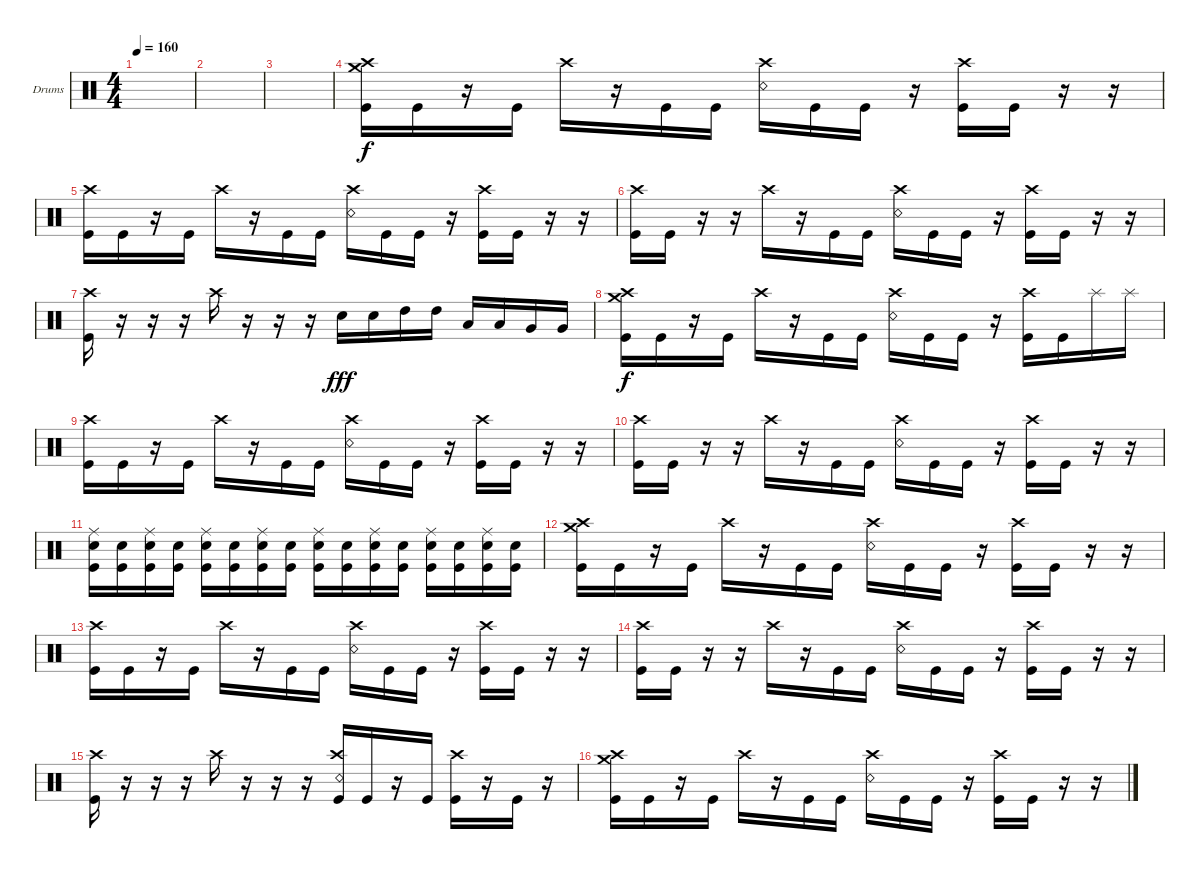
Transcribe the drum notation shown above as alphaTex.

\defaultSystemsLayout 4
\bracketExtendMode groupsimilarinstruments
\firstSystemTrackNameOrientation horizontal
\otherSystemsTrackNameOrientation horizontal
\track ("Drumkit" "Drums") {instrument percussion}
\staff {score}
\articulation defaults
\ts (4 4)
\tempo 160
\clef neutral
\ks c
|
|
|
("Kick (hit)" "Crash high (hit)" "Crash medium (hit)").16 "Kick (hit)".16 r.16 "Kick (hit)".16 "Crash high (hit)".16 r.16 "Kick (hit)".16 "Kick (hit)".16 ("Snare (rim shot)" "Crash high (hit)").16 "Kick (hit)".16 "Kick (hit)".16 r.16 ("Kick (hit)" "Crash high (hit)").16 "Kick (hit)".16 r.16 r.16 |
("Kick (hit)" "Crash high (hit)").16 "Kick (hit)".16 r.16 "Kick (hit)".16 "Crash high (hit)".16 r.16 "Kick (hit)".16 "Kick (hit)".16 ("Snare (rim shot)" "Crash high (hit)").16 "Kick (hit)".16 "Kick (hit)".16 r.16 ("Kick (hit)" "Crash high (hit)").16 "Kick (hit)".16 r.16 r.16 |
("Kick (hit)" "Crash high (hit)").16 "Kick (hit)".16 r.16 r.16 "Crash high (hit)".16 r.16 "Kick (hit)".16 "Kick (hit)".16 ("Snare (rim shot)" "Crash high (hit)").16 "Kick (hit)".16 "Kick (hit)".16 r.16 ("Kick (hit)" "Crash high (hit)").16 "Kick (hit)".16 r.16 r.16 |
("Kick (hit)" "Crash high (hit)").16 r.16 r.16 r.16 "Crash high (hit)".16 r.16 r.16 r.16 "Snare (hit) 2".16{dy fff} "Snare (hit) 2".16 "High Tom (hit)".16 "High Tom (hit)".16 "Low Tom (hit)".16 "Low Tom (hit)".16 "Very Low Tom (hit)".16 "Very Low Tom (hit)".16 |
("Kick (hit)" "Crash high (hit)" "Crash medium (hit)").16{dy f} "Kick (hit)".16 r.16 "Kick (hit)".16 "Crash high (hit)".16 r.16 "Kick (hit)".16 "Kick (hit)".16 ("Snare (rim shot)" "Crash high (hit)").16 "Kick (hit)".16 "Kick (hit)".16 r.16 ("Kick (hit)" "Crash high (hit)").16 "Kick (hit)".16 "Splash (hit)".16 "Splash (hit)".16 |
("Kick (hit)" "Crash high (hit)").16 "Kick (hit)".16 r.16 "Kick (hit)".16 "Crash high (hit)".16 r.16 "Kick (hit)".16 "Kick (hit)".16 ("Snare (rim shot)" "Crash high (hit)").16 "Kick (hit)".16 "Kick (hit)".16 r.16 ("Kick (hit)" "Crash high (hit)").16 "Kick (hit)".16 r.16 r.16 |
("Kick (hit)" "Crash high (hit)").16 "Kick (hit)".16 r.16 r.16 "Crash high (hit)".16 r.16 "Kick (hit)".16 "Kick (hit)".16 ("Snare (rim shot)" "Crash high (hit)").16 "Kick (hit)".16 "Kick (hit)".16 r.16 ("Kick (hit)" "Crash high (hit)").16 "Kick (hit)".16 r.16 r.16 |
("Kick (hit)" "Snare (hit) 2" "Ride (middle)").16 ("Kick (hit)" "Snare (hit) 2").16 ("Kick (hit)" "Snare (hit) 2" "Ride (middle)").16 ("Kick (hit)" "Snare (hit) 2").16 ("Kick (hit)" "Snare (hit) 2" "Ride (middle)").16 ("Kick (hit)" "Snare (hit) 2").16 ("Kick (hit)" "Snare (hit) 2" "Ride (middle)").16 ("Kick (hit)" "Snare (hit) 2").16 ("Kick (hit)" "Snare (hit) 2" "Ride (middle)").16 ("Kick (hit)" "Snare (hit) 2").16 ("Kick (hit)" "Snare (hit) 2" "Ride (middle)").16 ("Kick (hit)" "Snare (hit) 2").16 ("Kick (hit)" "Snare (hit) 2" "Ride (middle)").16 ("Kick (hit)" "Snare (hit) 2").16 ("Kick (hit)" "Snare (hit) 2" "Ride (middle)").16 ("Kick (hit)" "Snare (hit) 2").16 |
("Kick (hit)" "Crash high (hit)" "Crash medium (hit)").16 "Kick (hit)".16 r.16 "Kick (hit)".16 "Crash high (hit)".16 r.16 "Kick (hit)".16 "Kick (hit)".16 ("Snare (rim shot)" "Crash high (hit)").16 "Kick (hit)".16 "Kick (hit)".16 r.16 ("Kick (hit)" "Crash high (hit)").16 "Kick (hit)".16 r.16 r.16 |
("Kick (hit)" "Crash high (hit)").16 "Kick (hit)".16 r.16 "Kick (hit)".16 "Crash high (hit)".16 r.16 "Kick (hit)".16 "Kick (hit)".16 ("Snare (rim shot)" "Crash high (hit)").16 "Kick (hit)".16 "Kick (hit)".16 r.16 ("Kick (hit)" "Crash high (hit)").16 "Kick (hit)".16 r.16 r.16 |
("Kick (hit)" "Crash high (hit)").16 "Kick (hit)".16 r.16 r.16 "Crash high (hit)".16 r.16 "Kick (hit)".16 "Kick (hit)".16 ("Snare (rim shot)" "Crash high (hit)").16 "Kick (hit)".16 "Kick (hit)".16 r.16 ("Kick (hit)" "Crash high (hit)").16 "Kick (hit)".16 r.16 r.16 |
("Kick (hit)" "Crash high (hit)").16 r.16 r.16 r.16 "Crash high (hit)".16 r.16 r.16 r.16 ("Crash high (hit)" "Snare (rim shot)" "Kick (hit)").16 "Kick (hit)".16 r.16 "Kick (hit)".16 ("Crash high (hit)" "Kick (hit)").16 r.16 "Kick (hit)".16 r.16 |
("Kick (hit)" "Crash high (hit)" "Crash medium (hit)").16 "Kick (hit)".16 r.16 "Kick (hit)".16 "Crash high (hit)".16 r.16 "Kick (hit)".16 "Kick (hit)".16 ("Snare (rim shot)" "Crash high (hit)").16 "Kick (hit)".16 "Kick (hit)".16 r.16 ("Kick (hit)" "Crash high (hit)").16 "Kick (hit)".16 r.16 r.16
